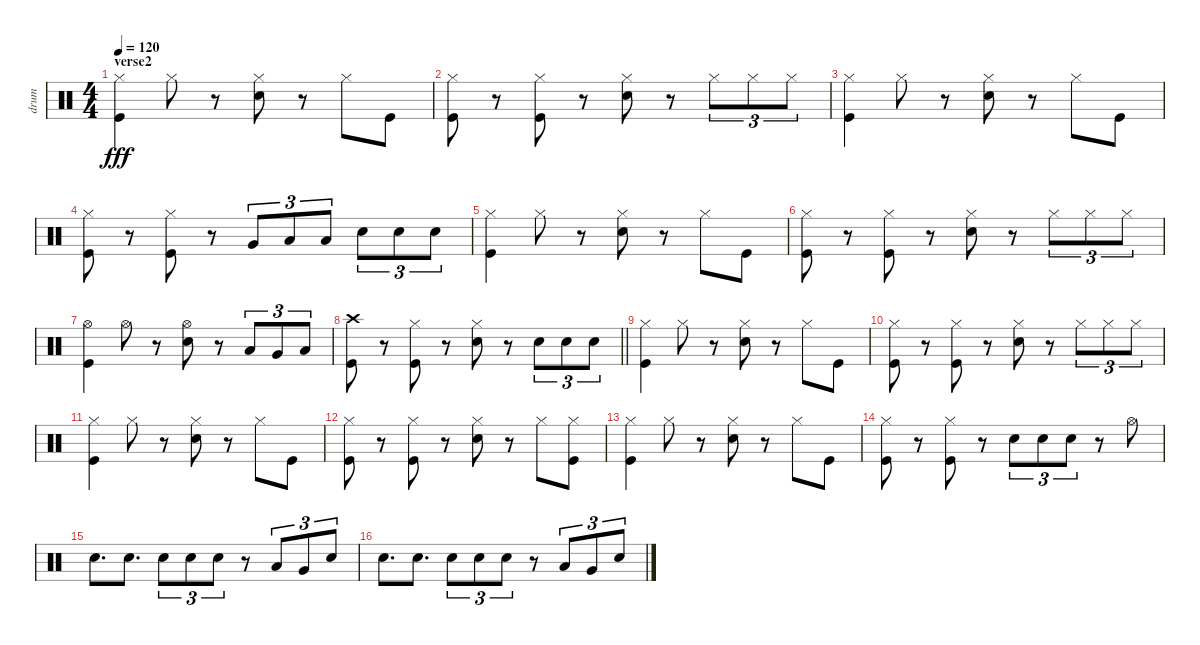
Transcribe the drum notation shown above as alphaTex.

\track ("drum" "drum") {instrument percussion}
\staff {score}
\articulation defaults
\ts (4 4)
\section ("" "verse2")
\tempo 120
\clef neutral
\ks c
("Hi-Hat (closed)" "Kick (hit)").4{dy fff} "Hi-Hat (closed)".8 r.8 ("Hi-Hat (closed)" "Hand Clap (hit)").8 r.8 "Hi-Hat (closed)".8 "Kick (hit)".8 |
("Hi-Hat (closed)" "Kick (hit)").8 r.8 ("Hi-Hat (closed)" "Kick (hit)").8 r.8 ("Hi-Hat (closed)" "Hand Clap (hit)").8 r.8 "Hi-Hat (closed)".8{tu (3 2)} "Hi-Hat (closed)".8{tu (3 2)} "Hi-Hat (closed)".8{tu (3 2)} |
("Hi-Hat (closed)" "Kick (hit)").4 "Hi-Hat (closed)".8 r.8 ("Hi-Hat (closed)" "Hand Clap (hit)").8 r.8 "Hi-Hat (closed)".8 "Kick (hit)".8 |
("Hi-Hat (closed)" "Kick (hit)").8 r.8 ("Hi-Hat (closed)" "Kick (hit)").8 r.8 "Very Low Tom (hit)".8{tu (3 2)} "Low Floor Tom (hit)".8{tu (3 2)} "Low Tom (hit)".8{tu (3 2)} "Electric Snare (hit)".8{tu (3 2)} "Electric Snare (hit)".8{tu (3 2)} "Electric Snare (hit)".8{tu (3 2)} |
("Hi-Hat (closed)" "Kick (hit)").4 "Hi-Hat (closed)".8 r.8 ("Hi-Hat (closed)" "Hand Clap (hit)").8 r.8 "Hi-Hat (closed)".8 "Kick (hit)".8 |
("Hi-Hat (closed)" "Kick (hit)").8 r.8 ("Hi-Hat (closed)" "Kick (hit)").8 r.8 ("Hi-Hat (closed)" "Hand Clap (hit)").8 r.8 "Hi-Hat (closed)".8{tu (3 2)} "Hi-Hat (closed)".8{tu (3 2)} "Hi-Hat (closed)".8{tu (3 2)} |
("Hi-Hat (open)" "Kick (hit)").4 "Hi-Hat (open)".8 r.8 ("Hi-Hat (open)" "Hand Clap (hit)").8 r.8 "Low Tom (hit)".8{tu (3 2)} "Very Low Tom (hit)".8{tu (3 2)} "Low Floor Tom (hit)".8{tu (3 2)} |
\barLineRight lightlight
("Crash high (hit)" "Kick (hit)").8 r.8 ("Hi-Hat (closed)" "Kick (hit)").8 r.8 ("Hi-Hat (closed)" "Hand Clap (hit)").8 r.8 "Electric Snare (hit)".8{tu (3 2)} "Electric Snare (hit)".8{tu (3 2)} "Electric Snare (hit)".8{tu (3 2)} |
("Hi-Hat (closed)" "Kick (hit)").4 "Hi-Hat (closed)".8 r.8 ("Hi-Hat (closed)" "Hand Clap (hit)").8 r.8 "Hi-Hat (closed)".8 "Kick (hit)".8 |
("Hi-Hat (closed)" "Kick (hit)").8 r.8 ("Hi-Hat (closed)" "Kick (hit)").8 r.8 ("Hi-Hat (closed)" "Hand Clap (hit)").8 r.8 "Hi-Hat (closed)".8{tu (3 2)} "Hi-Hat (closed)".8{tu (3 2)} "Hi-Hat (closed)".8{tu (3 2)} |
("Hi-Hat (closed)" "Kick (hit)").4 "Hi-Hat (closed)".8 r.8 ("Hi-Hat (closed)" "Hand Clap (hit)").8 r.8 "Hi-Hat (closed)".8 "Kick (hit)".8 |
("Hi-Hat (closed)" "Kick (hit)").8 r.8 ("Hi-Hat (closed)" "Kick (hit)").8 r.8 ("Hi-Hat (closed)" "Hand Clap (hit)").8 r.8 "Hi-Hat (closed)".8 ("Hi-Hat (closed)" "Kick (hit)").8 |
("Hi-Hat (closed)" "Kick (hit)").4 "Hi-Hat (closed)".8 r.8 ("Hi-Hat (closed)" "Hand Clap (hit)").8 r.8 "Hi-Hat (closed)".8 "Kick (hit)".8 |
("Hi-Hat (closed)" "Kick (hit)").8 r.8 ("Hi-Hat (closed)" "Kick (hit)").8 r.8 "Electric Snare (hit)".8{tu (3 2)} "Electric Snare (hit)".8{tu (3 2)} "Electric Snare (hit)".8{tu (3 2)} r.8 "Hi-Hat (open)".8 |
"Electric Snare (hit)".8{d} "Electric Snare (hit)".8{d} "Electric Snare (hit)".8{tu (3 2)} "Electric Snare (hit)".8{tu (3 2)} "Electric Snare (hit)".8{tu (3 2)} r.8 "Low Tom (hit)".8{tu (3 2)} "Very Low Tom (hit)".8{tu (3 2)} "Electric Snare (hit)".8{tu (3 2)} |
"Electric Snare (hit)".8{d} "Electric Snare (hit)".8{d} "Electric Snare (hit)".8{tu (3 2)} "Electric Snare (hit)".8{tu (3 2)} "Electric Snare (hit)".8{tu (3 2)} r.8 "Low Tom (hit)".8{tu (3 2)} "Very Low Tom (hit)".8{tu (3 2)} "Electric Snare (hit)".8{tu (3 2)}
